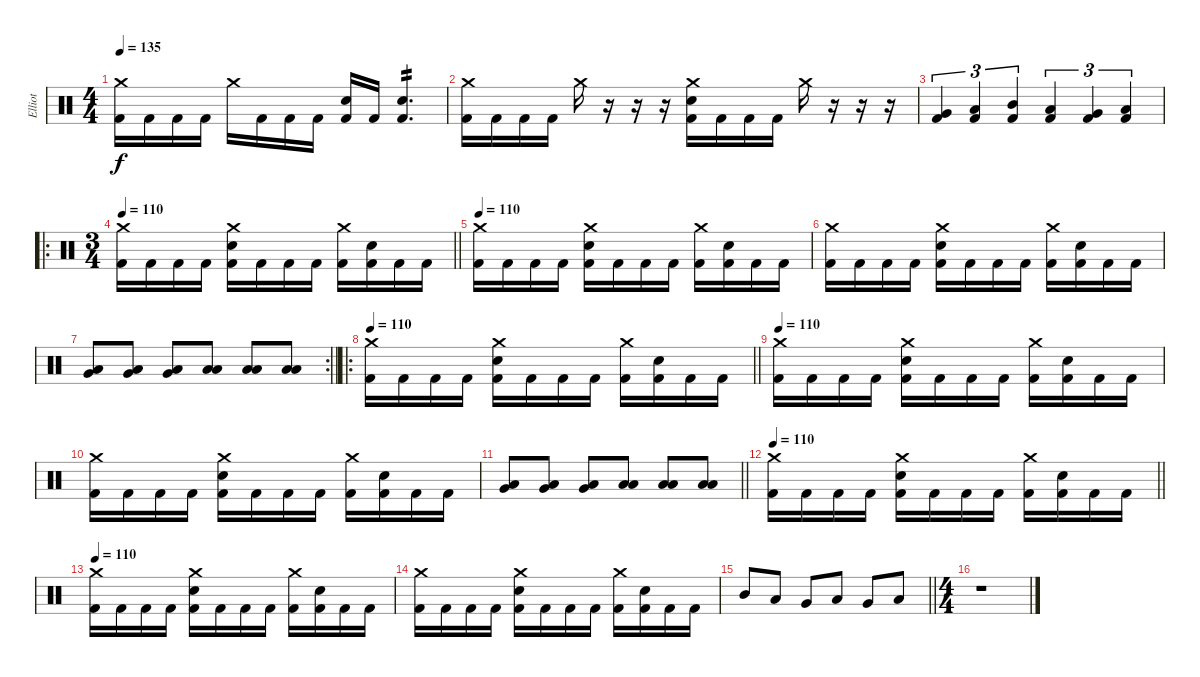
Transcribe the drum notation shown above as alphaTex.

\track ("Elliot" "Elliot") {instrument percussion}
\staff {score}
\articulation defaults
\ts (4 4)
\tempo 135
\clef neutral
\ks c
("Crash medium (hit)" "Kick (hit) 2").16{dy f} "Kick (hit) 2".16 "Kick (hit) 2".16 "Kick (hit) 2".16 "Crash medium (hit)".16 "Kick (hit) 2".16 "Kick (hit) 2".16 "Kick (hit) 2".16 ("Electric Snare (hit)" "Kick (hit) 2").16 "Kick (hit) 2".16 ("Electric Snare (hit)" "Kick (hit) 2").4{d tp 2} |
("Crash medium (hit)" "Kick (hit) 2").16 "Kick (hit) 2".16 "Kick (hit) 2".16 "Kick (hit) 2".16 "Crash medium (hit)".16 r.16 r.16 r.16 ("Crash medium (hit)" "Electric Snare (hit)" "Kick (hit) 2").16 "Kick (hit) 2".16 "Kick (hit) 2".16 "Kick (hit) 2".16 "Crash medium (hit)".16 r.16 r.16 r.16 |
("Very Low Tom (hit)" "Kick (hit) 2").4{tu (3 2)} ("Low Tom (hit)" "Kick (hit) 2").4{tu (3 2)} ("Mid Tom (hit)" "Kick (hit) 2").4{tu (3 2)} ("Low Tom (hit)" "Kick (hit) 2").4{tu (3 2)} ("Very Low Tom (hit)" "Kick (hit) 2").4{tu (3 2)} ("Low Tom (hit)" "Kick (hit) 2").4{tu (3 2)} |
\ro
\ts (3 4)
\tempo 110
\barLineRight lightlight
("Crash medium (hit)" "Kick (hit) 2").16 "Kick (hit) 2".16 "Kick (hit) 2".16 "Kick (hit) 2".16 ("Crash medium (hit)" "Electric Snare (hit)" "Kick (hit) 2").16 "Kick (hit) 2".16 "Kick (hit) 2".16 "Kick (hit) 2".16 ("Crash medium (hit)" "Kick (hit) 2").16 ("Electric Snare (hit)" "Kick (hit) 2").16 "Kick (hit) 2".16 "Kick (hit) 2".16 |
\tempo 110
("Crash medium (hit)" "Kick (hit) 2").16 "Kick (hit) 2".16 "Kick (hit) 2".16 "Kick (hit) 2".16 ("Crash medium (hit)" "Electric Snare (hit)" "Kick (hit) 2").16 "Kick (hit) 2".16 "Kick (hit) 2".16 "Kick (hit) 2".16 ("Crash medium (hit)" "Kick (hit) 2").16 ("Electric Snare (hit)" "Kick (hit) 2").16 "Kick (hit) 2".16 "Kick (hit) 2".16 |
("Crash medium (hit)" "Kick (hit) 2").16 "Kick (hit) 2".16 "Kick (hit) 2".16 "Kick (hit) 2".16 ("Crash medium (hit)" "Electric Snare (hit)" "Kick (hit) 2").16 "Kick (hit) 2".16 "Kick (hit) 2".16 "Kick (hit) 2".16 ("Crash medium (hit)" "Kick (hit) 2").16 ("Electric Snare (hit)" "Kick (hit) 2").16 "Kick (hit) 2".16 "Kick (hit) 2".16 |
\rc 2
\barLineRight lightlight
("Low Tom (hit)" "Very Low Tom (hit)").8 ("Low Tom (hit)" "Very Low Tom (hit)").8 ("Low Tom (hit)" "Very Low Tom (hit)").8 ("Low Tom (hit)" "Low Floor Tom (hit)").8 ("Low Tom (hit)" "Low Floor Tom (hit)").8 ("Low Tom (hit)" "Low Floor Tom (hit)").8 |
\ro
\tempo 110
\barLineRight lightlight
("Crash medium (hit)" "Kick (hit) 2").16 "Kick (hit) 2".16 "Kick (hit) 2".16 "Kick (hit) 2".16 ("Crash medium (hit)" "Electric Snare (hit)" "Kick (hit) 2").16 "Kick (hit) 2".16 "Kick (hit) 2".16 "Kick (hit) 2".16 ("Crash medium (hit)" "Kick (hit) 2").16 ("Electric Snare (hit)" "Kick (hit) 2").16 "Kick (hit) 2".16 "Kick (hit) 2".16 |
\tempo 110
("Crash medium (hit)" "Kick (hit) 2").16 "Kick (hit) 2".16 "Kick (hit) 2".16 "Kick (hit) 2".16 ("Crash medium (hit)" "Electric Snare (hit)" "Kick (hit) 2").16 "Kick (hit) 2".16 "Kick (hit) 2".16 "Kick (hit) 2".16 ("Crash medium (hit)" "Kick (hit) 2").16 ("Electric Snare (hit)" "Kick (hit) 2").16 "Kick (hit) 2".16 "Kick (hit) 2".16 |
("Crash medium (hit)" "Kick (hit) 2").16 "Kick (hit) 2".16 "Kick (hit) 2".16 "Kick (hit) 2".16 ("Crash medium (hit)" "Electric Snare (hit)" "Kick (hit) 2").16 "Kick (hit) 2".16 "Kick (hit) 2".16 "Kick (hit) 2".16 ("Crash medium (hit)" "Kick (hit) 2").16 ("Electric Snare (hit)" "Kick (hit) 2").16 "Kick (hit) 2".16 "Kick (hit) 2".16 |
\barLineRight lightlight
("Low Tom (hit)" "Very Low Tom (hit)").8 ("Low Tom (hit)" "Very Low Tom (hit)").8 ("Low Tom (hit)" "Very Low Tom (hit)").8 ("Low Tom (hit)" "Low Floor Tom (hit)").8 ("Low Tom (hit)" "Low Floor Tom (hit)").8 ("Low Tom (hit)" "Low Floor Tom (hit)").8 |
\tempo 110
\barLineRight lightlight
("Crash medium (hit)" "Kick (hit) 2").16 "Kick (hit) 2".16 "Kick (hit) 2".16 "Kick (hit) 2".16 ("Crash medium (hit)" "Electric Snare (hit)" "Kick (hit) 2").16 "Kick (hit) 2".16 "Kick (hit) 2".16 "Kick (hit) 2".16 ("Crash medium (hit)" "Kick (hit) 2").16 ("Electric Snare (hit)" "Kick (hit) 2").16 "Kick (hit) 2".16 "Kick (hit) 2".16 |
\tempo 110
("Crash medium (hit)" "Kick (hit) 2").16 "Kick (hit) 2".16 "Kick (hit) 2".16 "Kick (hit) 2".16 ("Crash medium (hit)" "Electric Snare (hit)" "Kick (hit) 2").16 "Kick (hit) 2".16 "Kick (hit) 2".16 "Kick (hit) 2".16 ("Crash medium (hit)" "Kick (hit) 2").16 ("Electric Snare (hit)" "Kick (hit) 2").16 "Kick (hit) 2".16 "Kick (hit) 2".16 |
("Crash medium (hit)" "Kick (hit) 2").16 "Kick (hit) 2".16 "Kick (hit) 2".16 "Kick (hit) 2".16 ("Crash medium (hit)" "Electric Snare (hit)" "Kick (hit) 2").16 "Kick (hit) 2".16 "Kick (hit) 2".16 "Kick (hit) 2".16 ("Crash medium (hit)" "Kick (hit) 2").16 ("Electric Snare (hit)" "Kick (hit) 2").16 "Kick (hit) 2".16 "Kick (hit) 2".16 |
\barLineRight lightlight "Mid Tom (hit)".8 "Low Tom (hit)".8 "Very Low Tom (hit)".8 "Low Floor Tom (hit)".8 "Very Low Tom (hit)".8 "Low Tom (hit)".8
|
\ts (4 4)
r.1
